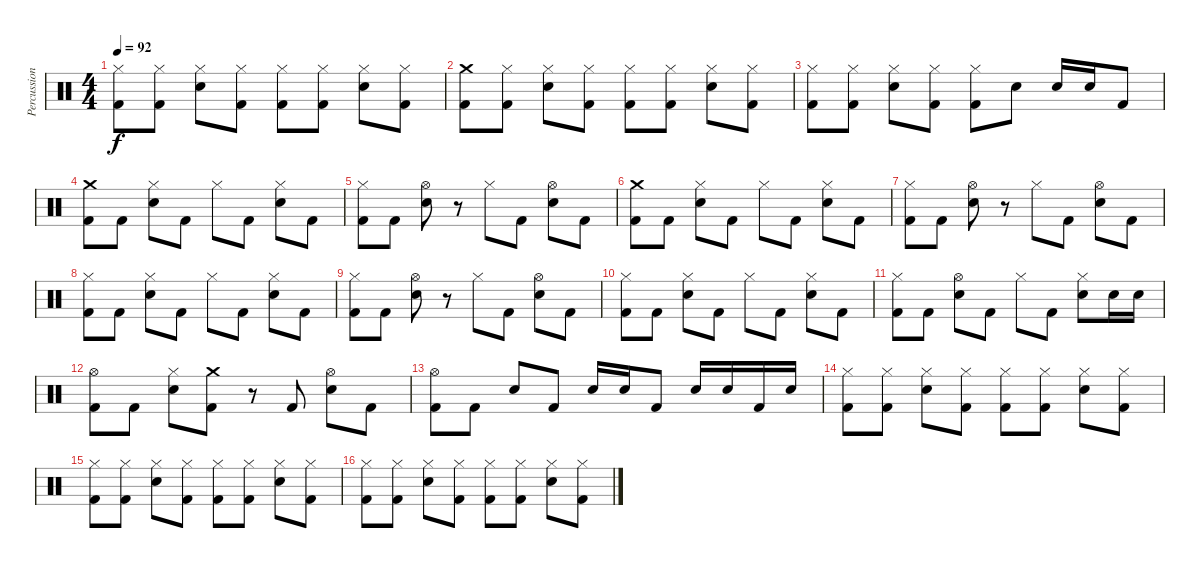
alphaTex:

\track ("Percussions" "Percussion") {instrument percussion}
\staff {score}
\articulation defaults
\ts (4 4)
\tempo 92
\clef neutral
\ks c
("Hi-Hat (closed)" "Kick (hit) 2").8{dy f} ("Hi-Hat (closed)" "Kick (hit) 2").8 ("Hi-Hat (closed)" "Electric Snare (hit)").8 ("Hi-Hat (closed)" "Kick (hit) 2").8 ("Hi-Hat (closed)" "Kick (hit) 2").8 ("Hi-Hat (closed)" "Kick (hit) 2").8 ("Hi-Hat (closed)" "Electric Snare (hit)").8 ("Hi-Hat (closed)" "Kick (hit) 2").8 |
("Crash medium (hit)" "Kick (hit) 2").8 ("Hi-Hat (closed)" "Kick (hit) 2").8 ("Hi-Hat (closed)" "Electric Snare (hit)").8 ("Hi-Hat (closed)" "Kick (hit) 2").8 ("Hi-Hat (closed)" "Kick (hit) 2").8 ("Hi-Hat (closed)" "Kick (hit) 2").8 ("Hi-Hat (closed)" "Electric Snare (hit)").8 ("Hi-Hat (closed)" "Kick (hit) 2").8 |
("Hi-Hat (closed)" "Kick (hit) 2").8 ("Hi-Hat (closed)" "Kick (hit) 2").8 ("Hi-Hat (closed)" "Electric Snare (hit)").8 ("Hi-Hat (closed)" "Kick (hit) 2").8 ("Hi-Hat (closed)" "Kick (hit) 2").8 "Electric Snare (hit)".8 "Electric Snare (hit)".16 "Snare (hit) 2".16 "Kick (hit) 2".8 |
("Crash medium (hit)" "Kick (hit) 2").8 "Kick (hit) 2".8 ("Hi-Hat (closed)" "Electric Snare (hit)").8 "Kick (hit) 2".8 "Hi-Hat (closed)".8 "Kick (hit) 2".8 ("Hi-Hat (closed)" "Electric Snare (hit)").8 "Kick (hit) 2".8 |
("Hi-Hat (closed)" "Kick (hit) 2").8 "Kick (hit) 2".8 ("Hi-Hat (open)" "Electric Snare (hit)").8 r.8 "Hi-Hat (closed)".8 "Kick (hit) 2".8 ("Hi-Hat (open)" "Electric Snare (hit)").8 "Kick (hit) 2".8 |
("Crash medium (hit)" "Kick (hit) 2").8 "Kick (hit) 2".8 ("Hi-Hat (closed)" "Electric Snare (hit)").8 "Kick (hit) 2".8 "Hi-Hat (closed)".8 "Kick (hit) 2".8 ("Hi-Hat (closed)" "Electric Snare (hit)").8 "Kick (hit) 2".8 |
("Hi-Hat (closed)" "Kick (hit) 2").8 "Kick (hit) 2".8 ("Hi-Hat (open)" "Electric Snare (hit)").8 r.8 "Hi-Hat (closed)".8 "Kick (hit) 2".8 ("Hi-Hat (open)" "Electric Snare (hit)").8 "Kick (hit) 2".8 |
("Hi-Hat (closed)" "Kick (hit) 2").8 "Kick (hit) 2".8 ("Hi-Hat (closed)" "Electric Snare (hit)").8 "Kick (hit) 2".8 "Hi-Hat (closed)".8 "Kick (hit) 2".8 ("Hi-Hat (closed)" "Electric Snare (hit)").8 "Kick (hit) 2".8 |
("Hi-Hat (closed)" "Kick (hit) 2").8 "Kick (hit) 2".8 ("Hi-Hat (open)" "Electric Snare (hit)").8 r.8 "Hi-Hat (closed)".8 "Kick (hit) 2".8 ("Hi-Hat (open)" "Electric Snare (hit)").8 "Kick (hit) 2".8 |
("Hi-Hat (closed)" "Kick (hit) 2").8 "Kick (hit) 2".8 ("Hi-Hat (closed)" "Electric Snare (hit)").8 "Kick (hit) 2".8 "Hi-Hat (closed)".8 "Kick (hit) 2".8 ("Hi-Hat (closed)" "Electric Snare (hit)").8 "Kick (hit) 2".8 |
("Hi-Hat (closed)" "Kick (hit) 2").8 "Kick (hit) 2".8 ("Hi-Hat (open)" "Electric Snare (hit)").8 "Kick (hit) 2".8 "Hi-Hat (closed)".8 "Kick (hit) 2".8 ("Hi-Hat (closed)" "Electric Snare (hit)").8 "Electric Snare (hit)".16 "Electric Snare (hit)".16 |
("Hi-Hat (open)" "Kick (hit) 2").8 "Kick (hit) 2".8 ("Hi-Hat (closed)" "Electric Snare (hit)").8 ("Crash medium (hit)" "Kick (hit) 2").8 r.8 "Kick (hit) 2".8 ("Hi-Hat (open)" "Electric Snare (hit)").8 "Kick (hit) 2".8 |
("Hi-Hat (open)" "Kick (hit) 2").8 "Kick (hit) 2".8 "Electric Snare (hit)".8 "Kick (hit) 2".8 "Electric Snare (hit)".16 "Snare (hit) 2".16 "Kick (hit) 2".8 "Electric Snare (hit)".16 "Snare (hit) 2".16 "Kick (hit) 2".16 "Electric Snare (hit)".16 |
("Hi-Hat (closed)" "Kick (hit) 2").8 ("Hi-Hat (closed)" "Kick (hit) 2").8 ("Hi-Hat (closed)" "Electric Snare (hit)").8 ("Hi-Hat (closed)" "Kick (hit) 2").8 ("Hi-Hat (closed)" "Kick (hit) 2").8 ("Hi-Hat (closed)" "Kick (hit) 2").8 ("Hi-Hat (closed)" "Electric Snare (hit)").8 ("Hi-Hat (closed)" "Kick (hit) 2").8 |
("Hi-Hat (closed)" "Kick (hit) 2").8 ("Hi-Hat (closed)" "Kick (hit) 2").8 ("Hi-Hat (closed)" "Electric Snare (hit)").8 ("Hi-Hat (closed)" "Kick (hit) 2").8 ("Hi-Hat (closed)" "Kick (hit) 2").8 ("Hi-Hat (closed)" "Kick (hit) 2").8 ("Hi-Hat (closed)" "Electric Snare (hit)").8 ("Hi-Hat (closed)" "Kick (hit) 2").8 |
("Hi-Hat (closed)" "Kick (hit) 2").8 ("Hi-Hat (closed)" "Kick (hit) 2").8 ("Hi-Hat (closed)" "Electric Snare (hit)").8 ("Hi-Hat (closed)" "Kick (hit) 2").8 ("Hi-Hat (closed)" "Kick (hit) 2").8 ("Hi-Hat (closed)" "Kick (hit) 2").8 ("Hi-Hat (closed)" "Electric Snare (hit)").8 ("Hi-Hat (closed)" "Kick (hit) 2").8
